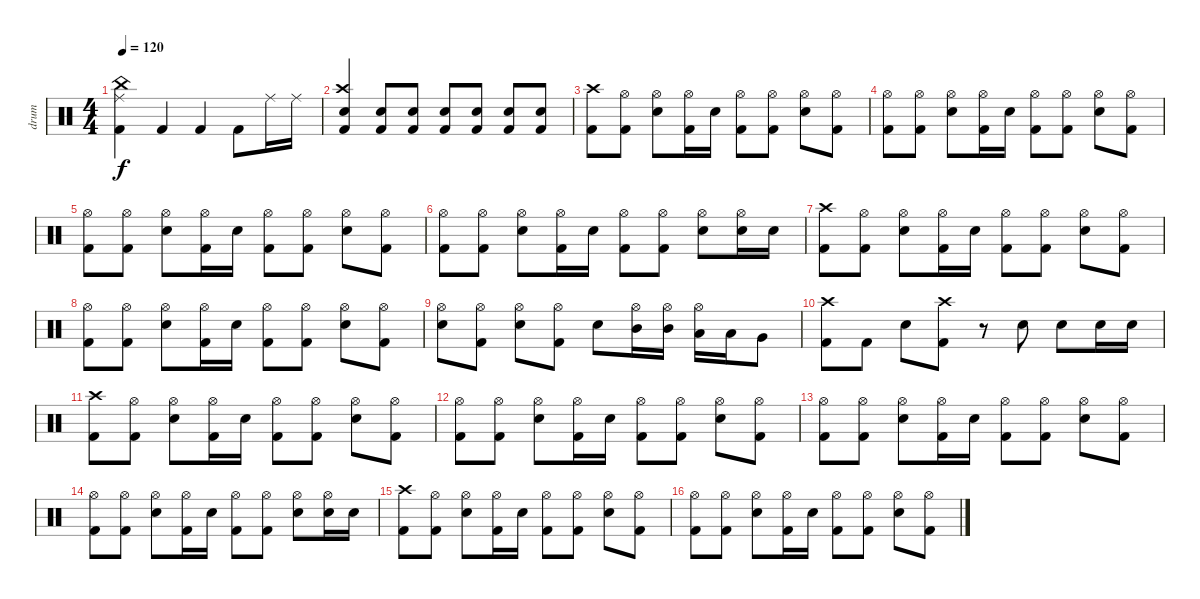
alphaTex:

\track ("drum" "drum") {instrument percussion}
\staff {score}
\articulation defaults
\ts (4 4)
\tempo 120
\clef neutral
\ks c
("China (hit)" "Ride (middle)" "Kick (hit) 2").4{dy f} "Kick (hit) 2".4 "Kick (hit) 2".4 "Kick (hit) 2".8 "Ride (middle)".16 "Ride (middle)".16 |
("Crash high (hit)" "Snare (hit) 2" "Kick (hit) 2").4 ("Snare (hit) 2" "Kick (hit) 2").8{volume 5} ("Snare (hit) 2" "Kick (hit) 2").8{volume 11} ("Snare (hit) 2" "Kick (hit) 2").8 ("Snare (hit) 2" "Kick (hit) 2").8 ("Snare (hit) 2" "Kick (hit) 2").8 ("Snare (hit) 2" "Kick (hit) 2").8 |
("Crash high (hit)" "Kick (hit) 2").8 ("Hi-Hat (open)" "Kick (hit) 2").8 ("Hi-Hat (open)" "Snare (hit) 2").8 ("Hi-Hat (open)" "Kick (hit) 2").16 "Snare (hit) 2".16 ("Hi-Hat (open)" "Kick (hit) 2").8 ("Hi-Hat (open)" "Kick (hit) 2").8 ("Hi-Hat (open)" "Snare (hit) 2").8 ("Hi-Hat (open)" "Kick (hit) 2").8 |
("Hi-Hat (open)" "Kick (hit) 2").8 ("Hi-Hat (open)" "Kick (hit) 2").8 ("Hi-Hat (open)" "Snare (hit) 2").8 ("Hi-Hat (open)" "Kick (hit) 2").16 "Snare (hit) 2".16 ("Hi-Hat (open)" "Kick (hit) 2").8 ("Hi-Hat (open)" "Kick (hit) 2").8 ("Hi-Hat (open)" "Snare (hit) 2").8 ("Hi-Hat (open)" "Kick (hit) 2").8 |
("Hi-Hat (open)" "Kick (hit) 2").8 ("Hi-Hat (open)" "Kick (hit) 2").8 ("Hi-Hat (open)" "Snare (hit) 2").8 ("Hi-Hat (open)" "Kick (hit) 2").16 "Snare (hit) 2".16 ("Hi-Hat (open)" "Kick (hit) 2").8 ("Hi-Hat (open)" "Kick (hit) 2").8 ("Hi-Hat (open)" "Snare (hit) 2").8 ("Hi-Hat (open)" "Kick (hit) 2").8 |
("Hi-Hat (open)" "Kick (hit) 2").8 ("Hi-Hat (open)" "Kick (hit) 2").8 ("Hi-Hat (open)" "Snare (hit) 2").8 ("Hi-Hat (open)" "Kick (hit) 2").16 "Snare (hit) 2".16 ("Hi-Hat (open)" "Kick (hit) 2").8 ("Hi-Hat (open)" "Kick (hit) 2").8 ("Hi-Hat (open)" "Snare (hit) 2").8 ("Hi-Hat (open)" "Snare (hit) 2").16 "Snare (hit) 2".16 |
("Crash high (hit)" "Kick (hit) 2").8 ("Hi-Hat (open)" "Kick (hit) 2").8 ("Hi-Hat (open)" "Snare (hit) 2").8 ("Hi-Hat (open)" "Kick (hit) 2").16 "Snare (hit) 2".16 ("Hi-Hat (open)" "Kick (hit) 2").8 ("Hi-Hat (open)" "Kick (hit) 2").8 ("Hi-Hat (open)" "Snare (hit) 2").8 ("Hi-Hat (open)" "Kick (hit) 2").8 |
("Hi-Hat (open)" "Kick (hit) 2").8 ("Hi-Hat (open)" "Kick (hit) 2").8 ("Hi-Hat (open)" "Snare (hit) 2").8 ("Hi-Hat (open)" "Kick (hit) 2").16 "Snare (hit) 2".16 ("Hi-Hat (open)" "Kick (hit) 2").8 ("Hi-Hat (open)" "Kick (hit) 2").8 ("Hi-Hat (open)" "Snare (hit) 2").8 ("Hi-Hat (open)" "Kick (hit) 2").8 |
("Hi-Hat (open)" "Snare (hit) 2").8 ("Hi-Hat (open)" "Kick (hit) 2").8 ("Hi-Hat (open)" "Snare (hit) 2").8 ("Hi-Hat (open)" "Kick (hit) 2").8 "Snare (hit) 2".8 ("Hi-Hat (open)" "Mid Tom (hit)").16 ("Hi-Hat (open)" "Mid Tom (hit)").16 ("Hi-Hat (open)" "Low Tom (hit)").16 "Low Tom (hit)".16 "Very Low Tom (hit)".8 |
("Crash high (hit)" "Kick (hit) 2").8 "Kick (hit) 2".8 "Snare (hit) 2".8 ("Crash high (hit)" "Kick (hit) 2").8 r.8 "Snare (hit) 2".8 "Snare (hit) 2".8 "Snare (hit) 2".16 "Snare (hit) 2".16 |
("Crash high (hit)" "Kick (hit) 2").8 ("Hi-Hat (open)" "Kick (hit) 2").8 ("Hi-Hat (open)" "Snare (hit) 2").8 ("Hi-Hat (open)" "Kick (hit) 2").16 "Snare (hit) 2".16 ("Hi-Hat (open)" "Kick (hit) 2").8 ("Hi-Hat (open)" "Kick (hit) 2").8 ("Hi-Hat (open)" "Snare (hit) 2").8 ("Hi-Hat (open)" "Kick (hit) 2").8 |
("Hi-Hat (open)" "Kick (hit) 2").8 ("Hi-Hat (open)" "Kick (hit) 2").8 ("Hi-Hat (open)" "Snare (hit) 2").8 ("Hi-Hat (open)" "Kick (hit) 2").16 "Snare (hit) 2".16 ("Hi-Hat (open)" "Kick (hit) 2").8 ("Hi-Hat (open)" "Kick (hit) 2").8 ("Hi-Hat (open)" "Snare (hit) 2").8 ("Hi-Hat (open)" "Kick (hit) 2").8 |
("Hi-Hat (open)" "Kick (hit) 2").8 ("Hi-Hat (open)" "Kick (hit) 2").8 ("Hi-Hat (open)" "Snare (hit) 2").8 ("Hi-Hat (open)" "Kick (hit) 2").16 "Snare (hit) 2".16 ("Hi-Hat (open)" "Kick (hit) 2").8 ("Hi-Hat (open)" "Kick (hit) 2").8 ("Hi-Hat (open)" "Snare (hit) 2").8 ("Hi-Hat (open)" "Kick (hit) 2").8 |
("Hi-Hat (open)" "Kick (hit) 2").8 ("Hi-Hat (open)" "Kick (hit) 2").8 ("Hi-Hat (open)" "Snare (hit) 2").8 ("Hi-Hat (open)" "Kick (hit) 2").16 "Snare (hit) 2".16 ("Hi-Hat (open)" "Kick (hit) 2").8 ("Hi-Hat (open)" "Kick (hit) 2").8 ("Hi-Hat (open)" "Snare (hit) 2").8 ("Hi-Hat (open)" "Snare (hit) 2").16 "Snare (hit) 2".16 |
("Crash high (hit)" "Kick (hit) 2").8 ("Hi-Hat (open)" "Kick (hit) 2").8 ("Hi-Hat (open)" "Snare (hit) 2").8 ("Hi-Hat (open)" "Kick (hit) 2").16 "Snare (hit) 2".16 ("Hi-Hat (open)" "Kick (hit) 2").8 ("Hi-Hat (open)" "Kick (hit) 2").8 ("Hi-Hat (open)" "Snare (hit) 2").8 ("Hi-Hat (open)" "Kick (hit) 2").8 |
("Hi-Hat (open)" "Kick (hit) 2").8 ("Hi-Hat (open)" "Kick (hit) 2").8 ("Hi-Hat (open)" "Snare (hit) 2").8 ("Hi-Hat (open)" "Kick (hit) 2").16 "Snare (hit) 2".16 ("Hi-Hat (open)" "Kick (hit) 2").8 ("Hi-Hat (open)" "Kick (hit) 2").8 ("Hi-Hat (open)" "Snare (hit) 2").8 ("Hi-Hat (open)" "Kick (hit) 2").8
